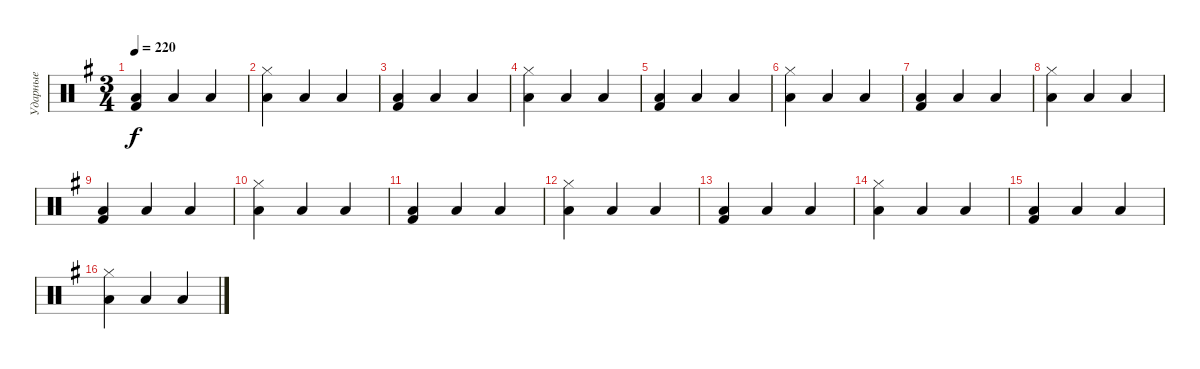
\track ("Ударные" "Ударные") {instrument percussion}
\staff {score}
\articulation defaults
\ts (3 4)
\tempo 220
\clef neutral
\ks eminor
("Kick (hit) 2" "Low Tom (hit)").4{dy f} "Low Tom (hit)".4 "Low Tom (hit)".4 |
("Hi-Hat (closed)" "Low Tom (hit)").4 "Low Tom (hit)".4 "Low Tom (hit)".4 |
("Kick (hit) 2" "Low Tom (hit)").4 "Low Tom (hit)".4 "Low Tom (hit)".4 |
("Hi-Hat (closed)" "Low Tom (hit)").4 "Low Tom (hit)".4 "Low Tom (hit)".4 |
("Kick (hit) 2" "Low Tom (hit)").4 "Low Tom (hit)".4 "Low Tom (hit)".4 |
("Hi-Hat (closed)" "Low Tom (hit)").4 "Low Tom (hit)".4 "Low Tom (hit)".4 |
("Kick (hit) 2" "Low Tom (hit)").4 "Low Tom (hit)".4 "Low Tom (hit)".4 |
("Hi-Hat (closed)" "Low Tom (hit)").4 "Low Tom (hit)".4 "Low Tom (hit)".4 |
("Kick (hit) 2" "Low Tom (hit)").4 "Low Tom (hit)".4 "Low Tom (hit)".4 |
("Hi-Hat (closed)" "Low Tom (hit)").4 "Low Tom (hit)".4 "Low Tom (hit)".4 |
("Kick (hit) 2" "Low Tom (hit)").4 "Low Tom (hit)".4 "Low Tom (hit)".4 |
("Hi-Hat (closed)" "Low Tom (hit)").4 "Low Tom (hit)".4 "Low Tom (hit)".4 |
("Kick (hit) 2" "Low Tom (hit)").4 "Low Tom (hit)".4 "Low Tom (hit)".4 |
("Hi-Hat (closed)" "Low Tom (hit)").4 "Low Tom (hit)".4 "Low Tom (hit)".4 |
("Kick (hit) 2" "Low Tom (hit)").4 "Low Tom (hit)".4 "Low Tom (hit)".4 |
("Hi-Hat (closed)" "Low Tom (hit)").4 "Low Tom (hit)".4 "Low Tom (hit)".4
